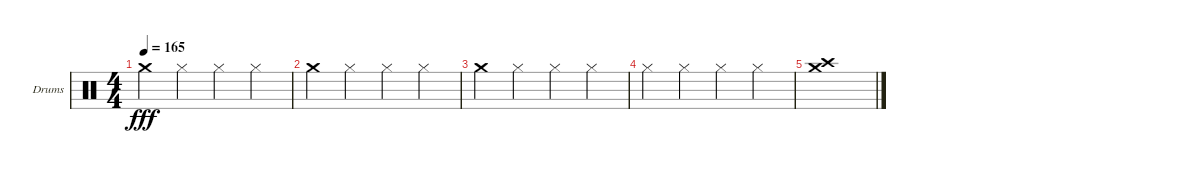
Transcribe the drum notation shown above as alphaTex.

\defaultSystemsLayout 4
\bracketExtendMode groupsimilarinstruments
\firstSystemTrackNameOrientation horizontal
\otherSystemsTrackNameOrientation horizontal
\track ("Helders" "Drums") {instrument percussion}
\staff {score}
\articulation defaults
\ts (4 4)
\tempo 165
\clef neutral
\ks c "Crash medium (hit)".4{dy fff} "Hi-Hat (closed)".4 "Hi-Hat (closed)".4 "Hi-Hat (closed)".4
|
"Crash medium (hit)".4 "Hi-Hat (closed)".4 "Hi-Hat (closed)".4 "Hi-Hat (closed)".4 |
"Crash medium (hit)".4 "Hi-Hat (closed)".4 "Hi-Hat (closed)".4 "Hi-Hat (closed)".4 |
"Hi-Hat (closed)".4 "Hi-Hat (closed)".4 "Hi-Hat (closed)".4 "Hi-Hat (closed)".4 |
("Crash high (hit)" "Crash medium (hit)").1
